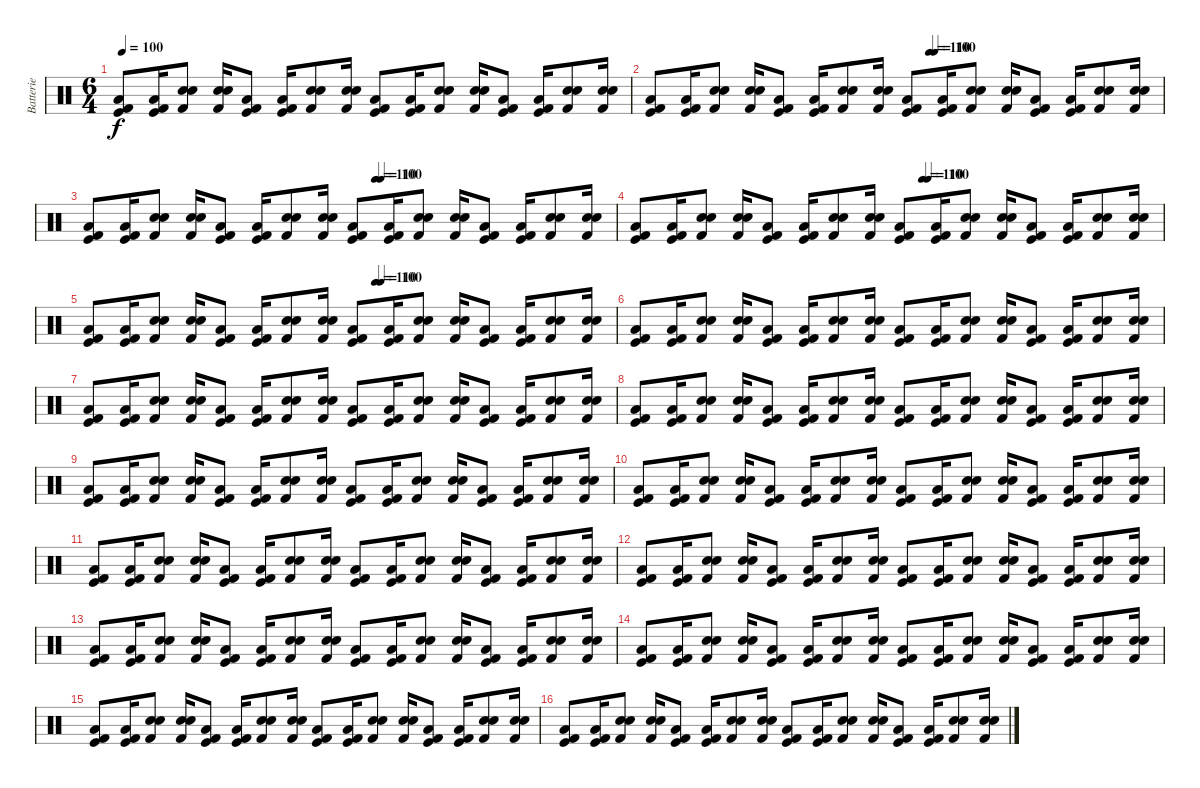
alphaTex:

\track ("Batterie" "Batterie") {instrument percussion}
\staff {score}
\articulation defaults
\ts (6 4)
\tempo 100
\clef neutral
\ks c
("Kick (hit)" "Low Tom (hit)" "Kick (hit) 2").8{dy f} ("Kick (hit)" "Low Tom (hit)" "Kick (hit) 2").16 ("Snare (hit) 2" "Kick (hit) 2" "Snare (hit) 2").8 ("Snare (hit) 2" "Kick (hit) 2" "Snare (hit) 2").16 ("Kick (hit)" "Low Tom (hit)" "Kick (hit) 2").8 ("Kick (hit)" "Low Tom (hit)" "Kick (hit) 2").16 ("Snare (hit) 2" "Kick (hit) 2" "Snare (hit) 2").8 ("Snare (hit) 2" "Kick (hit) 2" "Snare (hit) 2").16 ("Kick (hit)" "Low Tom (hit)" "Kick (hit) 2").8 ("Kick (hit)" "Low Tom (hit)" "Kick (hit) 2").16 ("Snare (hit) 2" "Kick (hit) 2" "Snare (hit) 2").8 ("Snare (hit) 2" "Kick (hit) 2" "Snare (hit) 2").16 ("Kick (hit)" "Low Tom (hit)" "Kick (hit) 2").8 ("Kick (hit)" "Low Tom (hit)" "Kick (hit) 2").16 ("Snare (hit) 2" "Kick (hit) 2" "Snare (hit) 2").8 ("Snare (hit) 2" "Kick (hit) 2" "Snare (hit) 2").16 |
\tempo (110 0.5416666666666666)
\tempo (100 0.5520833333333334)
("Kick (hit)" "Low Tom (hit)" "Kick (hit) 2").8 ("Kick (hit)" "Low Tom (hit)" "Kick (hit) 2").16 ("Snare (hit) 2" "Kick (hit) 2" "Snare (hit) 2").8 ("Snare (hit) 2" "Kick (hit) 2" "Snare (hit) 2").16 ("Kick (hit)" "Low Tom (hit)" "Kick (hit) 2").8 ("Kick (hit)" "Low Tom (hit)" "Kick (hit) 2").16 ("Snare (hit) 2" "Kick (hit) 2" "Snare (hit) 2").8 ("Snare (hit) 2" "Kick (hit) 2" "Snare (hit) 2").16 ("Kick (hit)" "Low Tom (hit)" "Kick (hit) 2").8 ("Kick (hit)" "Low Tom (hit)" "Kick (hit) 2").16 ("Snare (hit) 2" "Kick (hit) 2" "Snare (hit) 2").8 ("Snare (hit) 2" "Kick (hit) 2" "Snare (hit) 2").16 ("Kick (hit)" "Low Tom (hit)" "Kick (hit) 2").8 ("Kick (hit)" "Low Tom (hit)" "Kick (hit) 2").16 ("Snare (hit) 2" "Kick (hit) 2" "Snare (hit) 2").8 ("Snare (hit) 2" "Kick (hit) 2" "Snare (hit) 2").16 |
\tempo (110 0.5416666666666666)
\tempo (100 0.5520833333333334)
("Kick (hit)" "Low Tom (hit)" "Kick (hit) 2").8 ("Kick (hit)" "Low Tom (hit)" "Kick (hit) 2").16 ("Snare (hit) 2" "Kick (hit) 2" "Snare (hit) 2").8 ("Snare (hit) 2" "Kick (hit) 2" "Snare (hit) 2").16 ("Kick (hit)" "Low Tom (hit)" "Kick (hit) 2").8 ("Kick (hit)" "Low Tom (hit)" "Kick (hit) 2").16 ("Snare (hit) 2" "Kick (hit) 2" "Snare (hit) 2").8 ("Snare (hit) 2" "Kick (hit) 2" "Snare (hit) 2").16 ("Kick (hit)" "Low Tom (hit)" "Kick (hit) 2").8 ("Kick (hit)" "Low Tom (hit)" "Kick (hit) 2").16 ("Snare (hit) 2" "Kick (hit) 2" "Snare (hit) 2").8 ("Snare (hit) 2" "Kick (hit) 2" "Snare (hit) 2").16 ("Kick (hit)" "Low Tom (hit)" "Kick (hit) 2").8 ("Kick (hit)" "Low Tom (hit)" "Kick (hit) 2").16 ("Snare (hit) 2" "Kick (hit) 2" "Snare (hit) 2").8 ("Snare (hit) 2" "Kick (hit) 2" "Snare (hit) 2").16 |
\tempo (110 0.5416666666666666)
\tempo (100 0.5520833333333334)
("Kick (hit)" "Low Tom (hit)" "Kick (hit) 2").8 ("Kick (hit)" "Low Tom (hit)" "Kick (hit) 2").16 ("Snare (hit) 2" "Kick (hit) 2" "Snare (hit) 2").8 ("Snare (hit) 2" "Kick (hit) 2" "Snare (hit) 2").16 ("Kick (hit)" "Low Tom (hit)" "Kick (hit) 2").8 ("Kick (hit)" "Low Tom (hit)" "Kick (hit) 2").16 ("Snare (hit) 2" "Kick (hit) 2" "Snare (hit) 2").8 ("Snare (hit) 2" "Kick (hit) 2" "Snare (hit) 2").16 ("Kick (hit)" "Low Tom (hit)" "Kick (hit) 2").8 ("Kick (hit)" "Low Tom (hit)" "Kick (hit) 2").16 ("Snare (hit) 2" "Kick (hit) 2" "Snare (hit) 2").8 ("Snare (hit) 2" "Kick (hit) 2" "Snare (hit) 2").16 ("Kick (hit)" "Low Tom (hit)" "Kick (hit) 2").8 ("Kick (hit)" "Low Tom (hit)" "Kick (hit) 2").16 ("Snare (hit) 2" "Kick (hit) 2" "Snare (hit) 2").8 ("Snare (hit) 2" "Kick (hit) 2" "Snare (hit) 2").16 |
\tempo (110 0.5416666666666666)
\tempo (100 0.5520833333333334)
("Kick (hit)" "Low Tom (hit)" "Kick (hit) 2").8 ("Kick (hit)" "Low Tom (hit)" "Kick (hit) 2").16 ("Snare (hit) 2" "Kick (hit) 2" "Snare (hit) 2").8 ("Snare (hit) 2" "Kick (hit) 2" "Snare (hit) 2").16 ("Kick (hit)" "Low Tom (hit)" "Kick (hit) 2").8 ("Kick (hit)" "Low Tom (hit)" "Kick (hit) 2").16 ("Snare (hit) 2" "Kick (hit) 2" "Snare (hit) 2").8 ("Snare (hit) 2" "Kick (hit) 2" "Snare (hit) 2").16 ("Kick (hit)" "Low Tom (hit)" "Kick (hit) 2").8 ("Kick (hit)" "Low Tom (hit)" "Kick (hit) 2").16 ("Snare (hit) 2" "Kick (hit) 2" "Snare (hit) 2").8 ("Snare (hit) 2" "Kick (hit) 2" "Snare (hit) 2").16 ("Kick (hit)" "Low Tom (hit)" "Kick (hit) 2").8 ("Kick (hit)" "Low Tom (hit)" "Kick (hit) 2").16 ("Snare (hit) 2" "Kick (hit) 2" "Snare (hit) 2").8 ("Snare (hit) 2" "Kick (hit) 2" "Snare (hit) 2").16 |
("Kick (hit)" "Low Tom (hit)" "Kick (hit) 2").8 ("Kick (hit)" "Low Tom (hit)" "Kick (hit) 2").16 ("Snare (hit) 2" "Kick (hit) 2" "Snare (hit) 2").8 ("Snare (hit) 2" "Kick (hit) 2" "Snare (hit) 2").16 ("Kick (hit)" "Low Tom (hit)" "Kick (hit) 2").8 ("Kick (hit)" "Low Tom (hit)" "Kick (hit) 2").16 ("Snare (hit) 2" "Kick (hit) 2" "Snare (hit) 2").8 ("Snare (hit) 2" "Kick (hit) 2" "Snare (hit) 2").16 ("Kick (hit)" "Low Tom (hit)" "Kick (hit) 2").8 ("Kick (hit)" "Low Tom (hit)" "Kick (hit) 2").16 ("Snare (hit) 2" "Kick (hit) 2" "Snare (hit) 2").8 ("Snare (hit) 2" "Kick (hit) 2" "Snare (hit) 2").16 ("Kick (hit)" "Low Tom (hit)" "Kick (hit) 2").8 ("Kick (hit)" "Low Tom (hit)" "Kick (hit) 2").16 ("Snare (hit) 2" "Kick (hit) 2" "Snare (hit) 2").8 ("Snare (hit) 2" "Kick (hit) 2" "Snare (hit) 2").16 |
("Kick (hit)" "Low Tom (hit)" "Kick (hit) 2").8 ("Kick (hit)" "Low Tom (hit)" "Kick (hit) 2").16 ("Snare (hit) 2" "Kick (hit) 2" "Snare (hit) 2").8 ("Snare (hit) 2" "Kick (hit) 2" "Snare (hit) 2").16 ("Kick (hit)" "Low Tom (hit)" "Kick (hit) 2").8 ("Kick (hit)" "Low Tom (hit)" "Kick (hit) 2").16 ("Snare (hit) 2" "Kick (hit) 2" "Snare (hit) 2").8 ("Snare (hit) 2" "Kick (hit) 2" "Snare (hit) 2").16 ("Kick (hit)" "Low Tom (hit)" "Kick (hit) 2").8 ("Kick (hit)" "Low Tom (hit)" "Kick (hit) 2").16 ("Snare (hit) 2" "Kick (hit) 2" "Snare (hit) 2").8 ("Snare (hit) 2" "Kick (hit) 2" "Snare (hit) 2").16 ("Kick (hit)" "Low Tom (hit)" "Kick (hit) 2").8 ("Kick (hit)" "Low Tom (hit)" "Kick (hit) 2").16 ("Snare (hit) 2" "Kick (hit) 2" "Snare (hit) 2").8 ("Snare (hit) 2" "Kick (hit) 2" "Snare (hit) 2").16 |
("Kick (hit)" "Low Tom (hit)" "Kick (hit) 2").8 ("Kick (hit)" "Low Tom (hit)" "Kick (hit) 2").16 ("Snare (hit) 2" "Kick (hit) 2" "Snare (hit) 2").8 ("Snare (hit) 2" "Kick (hit) 2" "Snare (hit) 2").16 ("Kick (hit)" "Low Tom (hit)" "Kick (hit) 2").8 ("Kick (hit)" "Low Tom (hit)" "Kick (hit) 2").16 ("Snare (hit) 2" "Kick (hit) 2" "Snare (hit) 2").8 ("Snare (hit) 2" "Kick (hit) 2" "Snare (hit) 2").16 ("Kick (hit)" "Low Tom (hit)" "Kick (hit) 2").8 ("Kick (hit)" "Low Tom (hit)" "Kick (hit) 2").16 ("Snare (hit) 2" "Kick (hit) 2" "Snare (hit) 2").8 ("Snare (hit) 2" "Kick (hit) 2" "Snare (hit) 2").16 ("Kick (hit)" "Low Tom (hit)" "Kick (hit) 2").8 ("Kick (hit)" "Low Tom (hit)" "Kick (hit) 2").16 ("Snare (hit) 2" "Kick (hit) 2" "Snare (hit) 2").8 ("Snare (hit) 2" "Kick (hit) 2" "Snare (hit) 2").16 |
("Kick (hit)" "Low Tom (hit)" "Kick (hit) 2").8 ("Kick (hit)" "Low Tom (hit)" "Kick (hit) 2").16 ("Snare (hit) 2" "Kick (hit) 2" "Snare (hit) 2").8 ("Snare (hit) 2" "Kick (hit) 2" "Snare (hit) 2").16 ("Kick (hit)" "Low Tom (hit)" "Kick (hit) 2").8 ("Kick (hit)" "Low Tom (hit)" "Kick (hit) 2").16 ("Snare (hit) 2" "Kick (hit) 2" "Snare (hit) 2").8 ("Snare (hit) 2" "Kick (hit) 2" "Snare (hit) 2").16 ("Kick (hit)" "Low Tom (hit)" "Kick (hit) 2").8 ("Kick (hit)" "Low Tom (hit)" "Kick (hit) 2").16 ("Snare (hit) 2" "Kick (hit) 2" "Snare (hit) 2").8 ("Snare (hit) 2" "Kick (hit) 2" "Snare (hit) 2").16 ("Kick (hit)" "Low Tom (hit)" "Kick (hit) 2").8 ("Kick (hit)" "Low Tom (hit)" "Kick (hit) 2").16 ("Snare (hit) 2" "Kick (hit) 2" "Snare (hit) 2").8 ("Snare (hit) 2" "Kick (hit) 2" "Snare (hit) 2").16 |
("Kick (hit)" "Low Tom (hit)" "Kick (hit) 2").8 ("Kick (hit)" "Low Tom (hit)" "Kick (hit) 2").16 ("Snare (hit) 2" "Kick (hit) 2" "Snare (hit) 2").8 ("Snare (hit) 2" "Kick (hit) 2" "Snare (hit) 2").16 ("Kick (hit)" "Low Tom (hit)" "Kick (hit) 2").8 ("Kick (hit)" "Low Tom (hit)" "Kick (hit) 2").16 ("Snare (hit) 2" "Kick (hit) 2" "Snare (hit) 2").8 ("Snare (hit) 2" "Kick (hit) 2" "Snare (hit) 2").16 ("Kick (hit)" "Low Tom (hit)" "Kick (hit) 2").8 ("Kick (hit)" "Low Tom (hit)" "Kick (hit) 2").16 ("Snare (hit) 2" "Kick (hit) 2" "Snare (hit) 2").8 ("Snare (hit) 2" "Kick (hit) 2" "Snare (hit) 2").16 ("Kick (hit)" "Low Tom (hit)" "Kick (hit) 2").8 ("Kick (hit)" "Low Tom (hit)" "Kick (hit) 2").16 ("Snare (hit) 2" "Kick (hit) 2" "Snare (hit) 2").8 ("Snare (hit) 2" "Kick (hit) 2" "Snare (hit) 2").16 |
("Kick (hit)" "Low Tom (hit)" "Kick (hit) 2").8 ("Kick (hit)" "Low Tom (hit)" "Kick (hit) 2").16 ("Snare (hit) 2" "Kick (hit) 2" "Snare (hit) 2").8 ("Snare (hit) 2" "Kick (hit) 2" "Snare (hit) 2").16 ("Kick (hit)" "Low Tom (hit)" "Kick (hit) 2").8 ("Kick (hit)" "Low Tom (hit)" "Kick (hit) 2").16 ("Snare (hit) 2" "Kick (hit) 2" "Snare (hit) 2").8 ("Snare (hit) 2" "Kick (hit) 2" "Snare (hit) 2").16 ("Kick (hit)" "Low Tom (hit)" "Kick (hit) 2").8 ("Kick (hit)" "Low Tom (hit)" "Kick (hit) 2").16 ("Snare (hit) 2" "Kick (hit) 2" "Snare (hit) 2").8 ("Snare (hit) 2" "Kick (hit) 2" "Snare (hit) 2").16 ("Kick (hit)" "Low Tom (hit)" "Kick (hit) 2").8 ("Kick (hit)" "Low Tom (hit)" "Kick (hit) 2").16 ("Snare (hit) 2" "Kick (hit) 2" "Snare (hit) 2").8 ("Snare (hit) 2" "Kick (hit) 2" "Snare (hit) 2").16 |
("Kick (hit)" "Low Tom (hit)" "Kick (hit) 2").8 ("Kick (hit)" "Low Tom (hit)" "Kick (hit) 2").16 ("Snare (hit) 2" "Kick (hit) 2" "Snare (hit) 2").8 ("Snare (hit) 2" "Kick (hit) 2" "Snare (hit) 2").16 ("Kick (hit)" "Low Tom (hit)" "Kick (hit) 2").8 ("Kick (hit)" "Low Tom (hit)" "Kick (hit) 2").16 ("Snare (hit) 2" "Kick (hit) 2" "Snare (hit) 2").8 ("Snare (hit) 2" "Kick (hit) 2" "Snare (hit) 2").16 ("Kick (hit)" "Low Tom (hit)" "Kick (hit) 2").8 ("Kick (hit)" "Low Tom (hit)" "Kick (hit) 2").16 ("Snare (hit) 2" "Kick (hit) 2" "Snare (hit) 2").8 ("Snare (hit) 2" "Kick (hit) 2" "Snare (hit) 2").16 ("Kick (hit)" "Low Tom (hit)" "Kick (hit) 2").8 ("Kick (hit)" "Low Tom (hit)" "Kick (hit) 2").16 ("Snare (hit) 2" "Kick (hit) 2" "Snare (hit) 2").8 ("Snare (hit) 2" "Kick (hit) 2" "Snare (hit) 2").16 |
("Kick (hit)" "Low Tom (hit)" "Kick (hit) 2").8 ("Kick (hit)" "Low Tom (hit)" "Kick (hit) 2").16 ("Snare (hit) 2" "Kick (hit) 2" "Snare (hit) 2").8 ("Snare (hit) 2" "Kick (hit) 2" "Snare (hit) 2").16 ("Kick (hit)" "Low Tom (hit)" "Kick (hit) 2").8 ("Kick (hit)" "Low Tom (hit)" "Kick (hit) 2").16 ("Snare (hit) 2" "Kick (hit) 2" "Snare (hit) 2").8 ("Snare (hit) 2" "Kick (hit) 2" "Snare (hit) 2").16 ("Kick (hit)" "Low Tom (hit)" "Kick (hit) 2").8 ("Kick (hit)" "Low Tom (hit)" "Kick (hit) 2").16 ("Snare (hit) 2" "Kick (hit) 2" "Snare (hit) 2").8 ("Snare (hit) 2" "Kick (hit) 2" "Snare (hit) 2").16 ("Kick (hit)" "Low Tom (hit)" "Kick (hit) 2").8 ("Kick (hit)" "Low Tom (hit)" "Kick (hit) 2").16 ("Snare (hit) 2" "Kick (hit) 2" "Snare (hit) 2").8 ("Snare (hit) 2" "Kick (hit) 2" "Snare (hit) 2").16 |
("Kick (hit)" "Low Tom (hit)" "Kick (hit) 2").8 ("Kick (hit)" "Low Tom (hit)" "Kick (hit) 2").16 ("Snare (hit) 2" "Kick (hit) 2" "Snare (hit) 2").8 ("Snare (hit) 2" "Kick (hit) 2" "Snare (hit) 2").16 ("Kick (hit)" "Low Tom (hit)" "Kick (hit) 2").8 ("Kick (hit)" "Low Tom (hit)" "Kick (hit) 2").16 ("Snare (hit) 2" "Kick (hit) 2" "Snare (hit) 2").8 ("Snare (hit) 2" "Kick (hit) 2" "Snare (hit) 2").16 ("Kick (hit)" "Low Tom (hit)" "Kick (hit) 2").8 ("Kick (hit)" "Low Tom (hit)" "Kick (hit) 2").16 ("Snare (hit) 2" "Kick (hit) 2" "Snare (hit) 2").8 ("Snare (hit) 2" "Kick (hit) 2" "Snare (hit) 2").16 ("Kick (hit)" "Low Tom (hit)" "Kick (hit) 2").8 ("Kick (hit)" "Low Tom (hit)" "Kick (hit) 2").16 ("Snare (hit) 2" "Kick (hit) 2" "Snare (hit) 2").8 ("Snare (hit) 2" "Kick (hit) 2" "Snare (hit) 2").16 |
("Kick (hit)" "Low Tom (hit)" "Kick (hit) 2").8 ("Kick (hit)" "Low Tom (hit)" "Kick (hit) 2").16 ("Snare (hit) 2" "Kick (hit) 2" "Snare (hit) 2").8 ("Snare (hit) 2" "Kick (hit) 2" "Snare (hit) 2").16 ("Kick (hit)" "Low Tom (hit)" "Kick (hit) 2").8 ("Kick (hit)" "Low Tom (hit)" "Kick (hit) 2").16 ("Snare (hit) 2" "Kick (hit) 2" "Snare (hit) 2").8 ("Snare (hit) 2" "Kick (hit) 2" "Snare (hit) 2").16 ("Kick (hit)" "Low Tom (hit)" "Kick (hit) 2").8 ("Kick (hit)" "Low Tom (hit)" "Kick (hit) 2").16 ("Snare (hit) 2" "Kick (hit) 2" "Snare (hit) 2").8 ("Snare (hit) 2" "Kick (hit) 2" "Snare (hit) 2").16 ("Kick (hit)" "Low Tom (hit)" "Kick (hit) 2").8 ("Kick (hit)" "Low Tom (hit)" "Kick (hit) 2").16 ("Snare (hit) 2" "Kick (hit) 2" "Snare (hit) 2").8 ("Snare (hit) 2" "Kick (hit) 2" "Snare (hit) 2").16 |
("Kick (hit)" "Low Tom (hit)" "Kick (hit) 2").8 ("Kick (hit)" "Low Tom (hit)" "Kick (hit) 2").16 ("Snare (hit) 2" "Kick (hit) 2" "Snare (hit) 2").8 ("Snare (hit) 2" "Kick (hit) 2" "Snare (hit) 2").16 ("Kick (hit)" "Low Tom (hit)" "Kick (hit) 2").8 ("Kick (hit)" "Low Tom (hit)" "Kick (hit) 2").16 ("Snare (hit) 2" "Kick (hit) 2" "Snare (hit) 2").8 ("Snare (hit) 2" "Kick (hit) 2" "Snare (hit) 2").16 ("Kick (hit)" "Low Tom (hit)" "Kick (hit) 2").8 ("Kick (hit)" "Low Tom (hit)" "Kick (hit) 2").16 ("Snare (hit) 2" "Kick (hit) 2" "Snare (hit) 2").8 ("Snare (hit) 2" "Kick (hit) 2" "Snare (hit) 2").16 ("Kick (hit)" "Low Tom (hit)" "Kick (hit) 2").8 ("Kick (hit)" "Low Tom (hit)" "Kick (hit) 2").16 ("Snare (hit) 2" "Kick (hit) 2" "Snare (hit) 2").8 ("Snare (hit) 2" "Kick (hit) 2" "Snare (hit) 2").16
